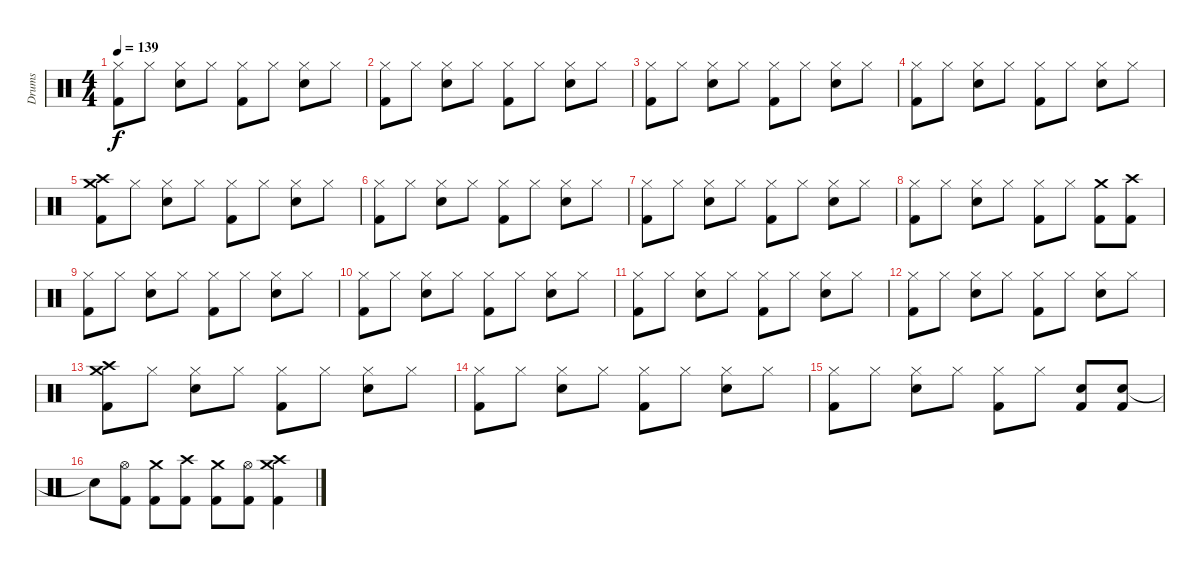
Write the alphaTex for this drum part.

\track ("Drums" "Drums") {instrument percussion}
\staff {score}
\articulation defaults
\ts (4 4)
\tempo 139
\clef neutral
\ks c
("Hi-Hat (closed)" "Kick (hit) 2").8{dy f} "Hi-Hat (closed)".8 ("Hi-Hat (closed)" "Snare (hit) 2").8 "Hi-Hat (closed)".8 ("Hi-Hat (closed)" "Kick (hit) 2").8 "Hi-Hat (closed)".8 ("Hi-Hat (closed)" "Snare (hit) 2").8 "Hi-Hat (closed)".8 |
("Hi-Hat (closed)" "Kick (hit) 2").8 "Hi-Hat (closed)".8 ("Hi-Hat (closed)" "Snare (hit) 2").8 "Hi-Hat (closed)".8 ("Hi-Hat (closed)" "Kick (hit) 2").8 "Hi-Hat (closed)".8 ("Hi-Hat (closed)" "Snare (hit) 2").8 "Hi-Hat (closed)".8 |
("Hi-Hat (closed)" "Kick (hit) 2").8 "Hi-Hat (closed)".8 ("Hi-Hat (closed)" "Snare (hit) 2").8 "Hi-Hat (closed)".8 ("Hi-Hat (closed)" "Kick (hit) 2").8 "Hi-Hat (closed)".8 ("Hi-Hat (closed)" "Snare (hit) 2").8 "Hi-Hat (closed)".8 |
("Hi-Hat (closed)" "Kick (hit) 2").8 "Hi-Hat (closed)".8 ("Hi-Hat (closed)" "Snare (hit) 2").8 "Hi-Hat (closed)".8 ("Hi-Hat (closed)" "Kick (hit) 2").8 "Hi-Hat (closed)".8 ("Hi-Hat (closed)" "Snare (hit) 2").8 "Hi-Hat (closed)".8 |
("Crash medium (hit)" "Crash high (hit)" "Kick (hit) 2").8 "Hi-Hat (closed)".8 ("Hi-Hat (closed)" "Snare (hit) 2").8 "Hi-Hat (closed)".8 ("Hi-Hat (closed)" "Kick (hit) 2").8 "Hi-Hat (closed)".8 ("Hi-Hat (closed)" "Snare (hit) 2").8 "Hi-Hat (closed)".8 |
("Hi-Hat (closed)" "Kick (hit) 2").8 "Hi-Hat (closed)".8 ("Hi-Hat (closed)" "Snare (hit) 2").8 "Hi-Hat (closed)".8 ("Hi-Hat (closed)" "Kick (hit) 2").8 "Hi-Hat (closed)".8 ("Hi-Hat (closed)" "Snare (hit) 2").8 "Hi-Hat (closed)".8 |
("Hi-Hat (closed)" "Kick (hit) 2").8 "Hi-Hat (closed)".8 ("Hi-Hat (closed)" "Snare (hit) 2").8 "Hi-Hat (closed)".8 ("Hi-Hat (closed)" "Kick (hit) 2").8 "Hi-Hat (closed)".8 ("Hi-Hat (closed)" "Snare (hit) 2").8 "Hi-Hat (closed)".8 |
("Hi-Hat (closed)" "Kick (hit) 2").8 "Hi-Hat (closed)".8 ("Hi-Hat (closed)" "Snare (hit) 2").8 "Hi-Hat (closed)".8 ("Hi-Hat (closed)" "Kick (hit) 2").8 "Hi-Hat (closed)".8 ("Crash medium (hit)" "Kick (hit) 2").8 ("Crash high (hit)" "Kick (hit) 2").8 |
("Hi-Hat (closed)" "Kick (hit) 2").8 "Hi-Hat (closed)".8 ("Hi-Hat (closed)" "Snare (hit) 2").8 "Hi-Hat (closed)".8 ("Hi-Hat (closed)" "Kick (hit) 2").8 "Hi-Hat (closed)".8 ("Hi-Hat (closed)" "Snare (hit) 2").8 "Hi-Hat (closed)".8 |
("Hi-Hat (closed)" "Kick (hit) 2").8 "Hi-Hat (closed)".8 ("Hi-Hat (closed)" "Snare (hit) 2").8 "Hi-Hat (closed)".8 ("Hi-Hat (closed)" "Kick (hit) 2").8 "Hi-Hat (closed)".8 ("Hi-Hat (closed)" "Snare (hit) 2").8 "Hi-Hat (closed)".8 |
("Hi-Hat (closed)" "Kick (hit) 2").8 "Hi-Hat (closed)".8 ("Hi-Hat (closed)" "Snare (hit) 2").8 "Hi-Hat (closed)".8 ("Hi-Hat (closed)" "Kick (hit) 2").8 "Hi-Hat (closed)".8 ("Hi-Hat (closed)" "Snare (hit) 2").8 "Hi-Hat (closed)".8 |
("Hi-Hat (closed)" "Kick (hit) 2").8 "Hi-Hat (closed)".8 ("Hi-Hat (closed)" "Snare (hit) 2").8 "Hi-Hat (closed)".8 ("Hi-Hat (closed)" "Kick (hit) 2").8 "Hi-Hat (closed)".8 ("Hi-Hat (closed)" "Snare (hit) 2").8 "Hi-Hat (closed)".8 |
("Crash high (hit)" "Crash medium (hit)" "Kick (hit) 2").8 "Hi-Hat (closed)".8 ("Hi-Hat (closed)" "Snare (hit) 2").8 "Hi-Hat (closed)".8 ("Hi-Hat (closed)" "Kick (hit) 2").8 "Hi-Hat (closed)".8 ("Hi-Hat (closed)" "Snare (hit) 2").8 "Hi-Hat (closed)".8 |
("Hi-Hat (closed)" "Kick (hit) 2").8 "Hi-Hat (closed)".8 ("Hi-Hat (closed)" "Snare (hit) 2").8 "Hi-Hat (closed)".8 ("Hi-Hat (closed)" "Kick (hit) 2").8 "Hi-Hat (closed)".8 ("Hi-Hat (closed)" "Snare (hit) 2").8 "Hi-Hat (closed)".8 |
("Hi-Hat (closed)" "Kick (hit) 2").8 "Hi-Hat (closed)".8 ("Hi-Hat (closed)" "Snare (hit) 2").8 "Hi-Hat (closed)".8 ("Hi-Hat (closed)" "Kick (hit) 2").8 "Hi-Hat (closed)".8 ("Snare (hit) 2" "Kick (hit) 2").8 ("Snare (hit) 2" "Kick (hit) 2").8 |
"Snare (hit)"{t}.8 ("Hi-Hat (open)" "Kick (hit) 2").8 ("Crash medium (hit)" "Kick (hit) 2").8 ("Crash high (hit)" "Kick (hit) 2").8 ("Crash medium (hit)" "Kick (hit) 2").8 ("Hi-Hat (open)" "Kick (hit) 2").8 ("Crash high (hit)" "Crash medium (hit)" "Kick (hit) 2").4
